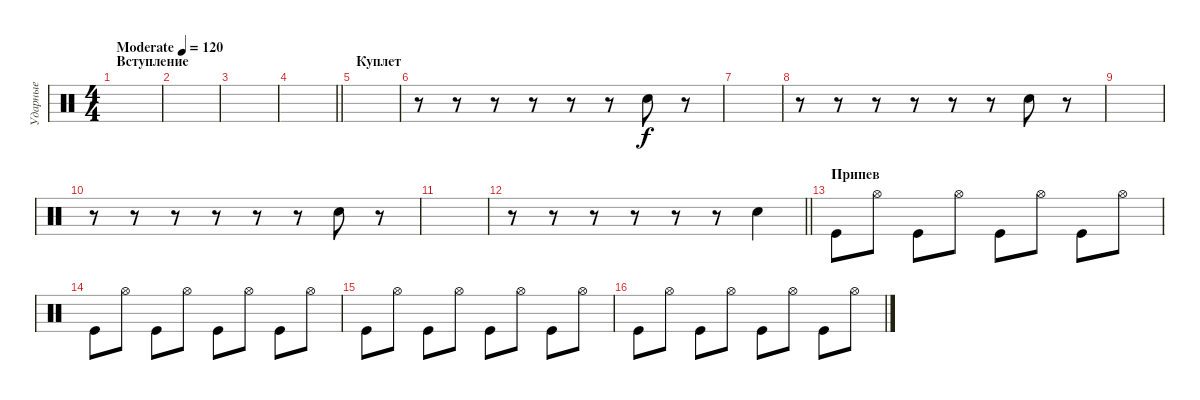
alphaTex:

\track ("Ударные" "Ударные") {instrument percussion}
\staff {score}
\articulation defaults
\ts (4 4)
\section ("" "Вступление")
\tempo (120 "Moderate")
\clef neutral
\ks c
|
|
|
\barLineRight lightlight
|
\section ("" "Куплет")
|
r.8 r.8 r.8 r.8 r.8 r.8 "Electric Snare (hit)".8 r.8 |
|
r.8 r.8 r.8 r.8 r.8 r.8 "Electric Snare (hit)".8 r.8 |
|
r.8 r.8 r.8 r.8 r.8 r.8 "Electric Snare (hit)".8 r.8 |
|
\barLineRight lightlight
r.8 r.8 r.8 r.8 r.8 r.8 "Electric Snare (hit)".4 |
\section ("" "Припев")
"Kick (hit)".8 "Hi-Hat (open)".8 "Kick (hit)".8 "Hi-Hat (open)".8 "Kick (hit)".8 "Hi-Hat (open)".8 "Kick (hit)".8 "Hi-Hat (open)".8 |
"Kick (hit)".8 "Hi-Hat (open)".8 "Kick (hit)".8 "Hi-Hat (open)".8 "Kick (hit)".8 "Hi-Hat (open)".8 "Kick (hit)".8 "Hi-Hat (open)".8 |
"Kick (hit)".8 "Hi-Hat (open)".8 "Kick (hit)".8 "Hi-Hat (open)".8 "Kick (hit)".8 "Hi-Hat (open)".8 "Kick (hit)".8 "Hi-Hat (open)".8 |
"Kick (hit)".8 "Hi-Hat (open)".8 "Kick (hit)".8 "Hi-Hat (open)".8 "Kick (hit)".8 "Hi-Hat (open)".8 "Kick (hit)".8 "Hi-Hat (open)".8
